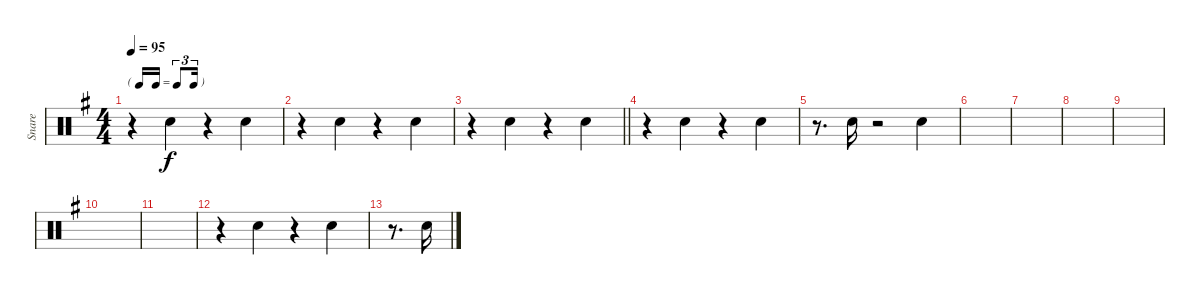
\track ("Snare" "Snare") {instrument percussion}
\staff {score}
\articulation defaults
\ts (4 4)
\tf triplet16th
\tempo 95
\clef neutral
\ks eminor
r.4{dy f} "Snare (hit) 2".4 r.4 "Snare (hit) 2".4 |
r.4 "Snare (hit) 2".4 r.4 "Snare (hit) 2".4 |
\barLineRight lightlight
r.4 "Snare (hit) 2".4 r.4 "Snare (hit) 2".4 |
r.4 "Snare (hit) 2".4 r.4 "Snare (hit) 2".4 |
r.8{d} "Snare (hit) 2".16 r.2 "Snare (hit) 2".4 |
|
|
|
|
|
|
r.4 "Snare (hit) 2".4 r.4 "Snare (hit) 2".4 |
r.8{d} "Snare (hit) 2".16
